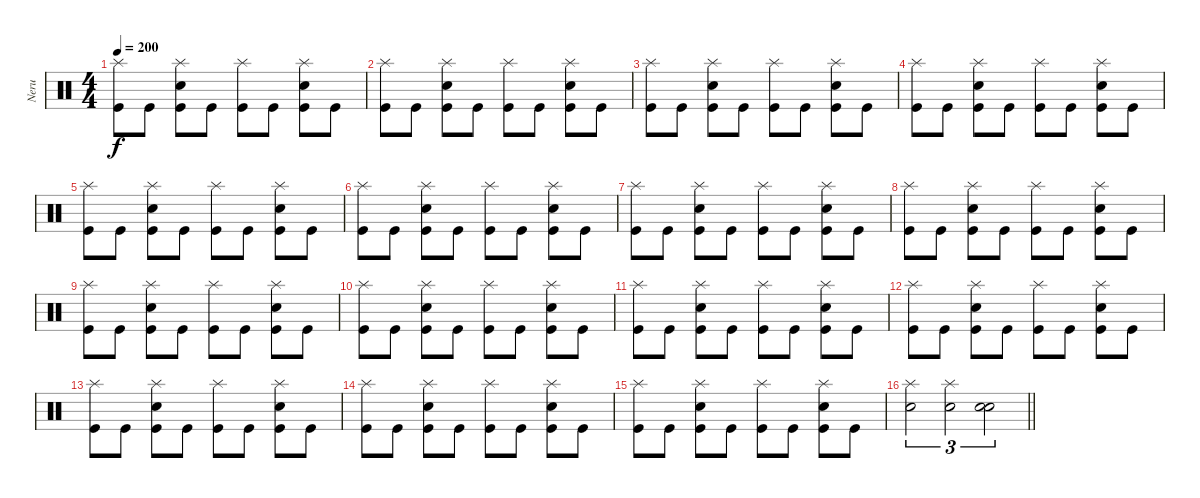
\track ("Neru" "Neru") {instrument percussion}
\staff {score}
\articulation defaults
\ts (4 4)
\tempo 200
\clef neutral
\ks c
("Splash (hit)" "Kick (hit)").8{dy f} "Kick (hit)".8 ("Splash (hit)" "Electric Snare (hit)" "Kick (hit)").8 "Kick (hit)".8 ("Splash (hit)" "Kick (hit)").8 "Kick (hit)".8 ("Splash (hit)" "Electric Snare (hit)" "Kick (hit)").8 "Kick (hit)".8 |
("Splash (hit)" "Kick (hit)").8 "Kick (hit)".8 ("Splash (hit)" "Electric Snare (hit)" "Kick (hit)").8 "Kick (hit)".8 ("Splash (hit)" "Kick (hit)").8 "Kick (hit)".8 ("Splash (hit)" "Electric Snare (hit)" "Kick (hit)").8 "Kick (hit)".8 |
("Splash (hit)" "Kick (hit)").8 "Kick (hit)".8 ("Splash (hit)" "Electric Snare (hit)" "Kick (hit)").8 "Kick (hit)".8 ("Splash (hit)" "Kick (hit)").8 "Kick (hit)".8 ("Splash (hit)" "Electric Snare (hit)" "Kick (hit)").8 "Kick (hit)".8 |
("Splash (hit)" "Kick (hit)").8 "Kick (hit)".8 ("Splash (hit)" "Electric Snare (hit)" "Kick (hit)").8 "Kick (hit)".8 ("Splash (hit)" "Kick (hit)").8 "Kick (hit)".8 ("Splash (hit)" "Electric Snare (hit)" "Kick (hit)").8 "Kick (hit)".8 |
("Splash (hit)" "Kick (hit)").8 "Kick (hit)".8 ("Splash (hit)" "Electric Snare (hit)" "Kick (hit)").8 "Kick (hit)".8 ("Splash (hit)" "Kick (hit)").8 "Kick (hit)".8 ("Splash (hit)" "Electric Snare (hit)" "Kick (hit)").8 "Kick (hit)".8 |
("Splash (hit)" "Kick (hit)").8 "Kick (hit)".8 ("Splash (hit)" "Electric Snare (hit)" "Kick (hit)").8 "Kick (hit)".8 ("Splash (hit)" "Kick (hit)").8 "Kick (hit)".8 ("Splash (hit)" "Electric Snare (hit)" "Kick (hit)").8 "Kick (hit)".8 |
("Splash (hit)" "Kick (hit)").8 "Kick (hit)".8 ("Splash (hit)" "Electric Snare (hit)" "Kick (hit)").8 "Kick (hit)".8 ("Splash (hit)" "Kick (hit)").8 "Kick (hit)".8 ("Splash (hit)" "Electric Snare (hit)" "Kick (hit)").8 "Kick (hit)".8 |
("Splash (hit)" "Kick (hit)").8 "Kick (hit)".8 ("Splash (hit)" "Electric Snare (hit)" "Kick (hit)").8 "Kick (hit)".8 ("Splash (hit)" "Kick (hit)").8 "Kick (hit)".8 ("Splash (hit)" "Electric Snare (hit)" "Kick (hit)").8 "Kick (hit)".8 |
("Splash (hit)" "Kick (hit)").8 "Kick (hit)".8 ("Splash (hit)" "Electric Snare (hit)" "Kick (hit)").8 "Kick (hit)".8 ("Splash (hit)" "Kick (hit)").8 "Kick (hit)".8 ("Splash (hit)" "Electric Snare (hit)" "Kick (hit)").8 "Kick (hit)".8 |
("Splash (hit)" "Kick (hit)").8 "Kick (hit)".8 ("Splash (hit)" "Electric Snare (hit)" "Kick (hit)").8 "Kick (hit)".8 ("Splash (hit)" "Kick (hit)").8 "Kick (hit)".8 ("Splash (hit)" "Electric Snare (hit)" "Kick (hit)").8 "Kick (hit)".8 |
("Splash (hit)" "Kick (hit)").8 "Kick (hit)".8 ("Splash (hit)" "Electric Snare (hit)" "Kick (hit)").8 "Kick (hit)".8 ("Splash (hit)" "Kick (hit)").8 "Kick (hit)".8 ("Splash (hit)" "Electric Snare (hit)" "Kick (hit)").8 "Kick (hit)".8 |
("Splash (hit)" "Kick (hit)").8 "Kick (hit)".8 ("Splash (hit)" "Electric Snare (hit)" "Kick (hit)").8 "Kick (hit)".8 ("Splash (hit)" "Kick (hit)").8 "Kick (hit)".8 ("Splash (hit)" "Electric Snare (hit)" "Kick (hit)").8 "Kick (hit)".8 |
("Splash (hit)" "Kick (hit)").8 "Kick (hit)".8 ("Splash (hit)" "Electric Snare (hit)" "Kick (hit)").8 "Kick (hit)".8 ("Splash (hit)" "Kick (hit)").8 "Kick (hit)".8 ("Splash (hit)" "Electric Snare (hit)" "Kick (hit)").8 "Kick (hit)".8 |
("Splash (hit)" "Kick (hit)").8 "Kick (hit)".8 ("Splash (hit)" "Electric Snare (hit)" "Kick (hit)").8 "Kick (hit)".8 ("Splash (hit)" "Kick (hit)").8 "Kick (hit)".8 ("Splash (hit)" "Electric Snare (hit)" "Kick (hit)").8 "Kick (hit)".8 |
("Splash (hit)" "Kick (hit)").8 "Kick (hit)".8 ("Splash (hit)" "Electric Snare (hit)" "Kick (hit)").8 "Kick (hit)".8 ("Splash (hit)" "Kick (hit)").8 "Kick (hit)".8 ("Splash (hit)" "Electric Snare (hit)" "Kick (hit)").8 "Kick (hit)".8 |
\barLineRight lightlight
("Splash (hit)" "Electric Snare (hit)").2{tu (3 2)} ("Splash (hit)" "Electric Snare (hit)").2{tu (3 2)} ("Snare (hit) 2" "Electric Snare (hit)").2{tu (3 2)}
